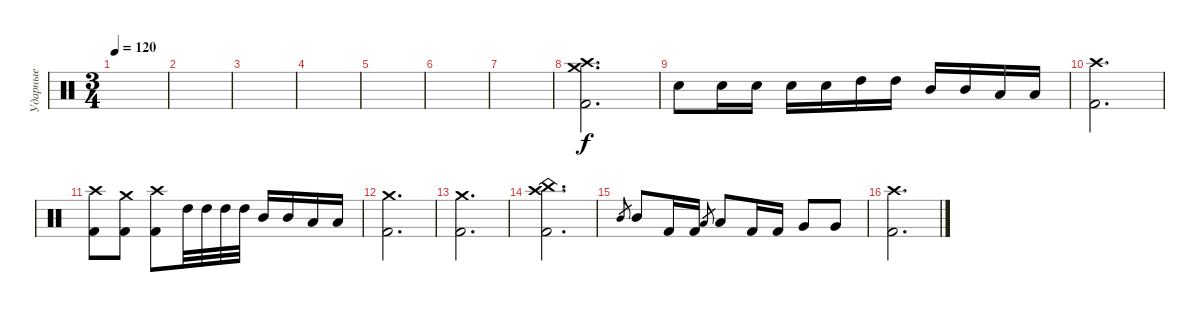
\track ("Ударные" "Ударные") {instrument percussion}
\staff {score}
\articulation defaults
\ts (3 4)
\tempo 120
\clef neutral
\ks c
|
|
|
|
|
|
|
("Kick (hit) 2" "Crash high (hit)" "Crash medium (hit)").2{d} |
"Electric Snare (hit)".8 "Electric Snare (hit)".16 "Electric Snare (hit)".16 "Electric Snare (hit)".16 "Electric Snare (hit)".16 "High Tom (hit)".16 "High Tom (hit)".16 "Mid Tom (hit)".16 "Mid Tom (hit)".16 "Low Tom (hit)".16 "Low Tom (hit)".16 |
("Kick (hit) 2" "Crash high (hit)").2{d} |
("Kick (hit) 2" "Crash high (hit)").8 ("Kick (hit) 2" "Crash medium (hit)").8 ("Kick (hit) 2" "Crash high (hit)").8 "High Tom (hit)".32 "High Tom (hit)".32 "High Tom (hit)".32 "High Tom (hit)".32 "Mid Tom (hit)".16 "Mid Tom (hit)".16 "Low Tom (hit)".16 "Low Tom (hit)".16 |
("Kick (hit) 2" "Crash medium (hit)").2{d} |
("Kick (hit) 2" "Crash medium (hit)").2{d} |
("Kick (hit) 2" "Crash high (hit)" "China (hit)").2{d} |
"Mid Tom (hit)".8{gr} "Mid Tom (hit)".8 "Kick (hit) 2".16 "Kick (hit) 2".16 "Low Tom (hit)".8{gr} "Low Tom (hit)".8 "Kick (hit) 2".16 "Kick (hit) 2".16 "Very Low Tom (hit)".8 "Very Low Tom (hit)".8 |
("Kick (hit) 2" "Crash high (hit)").2{d}
